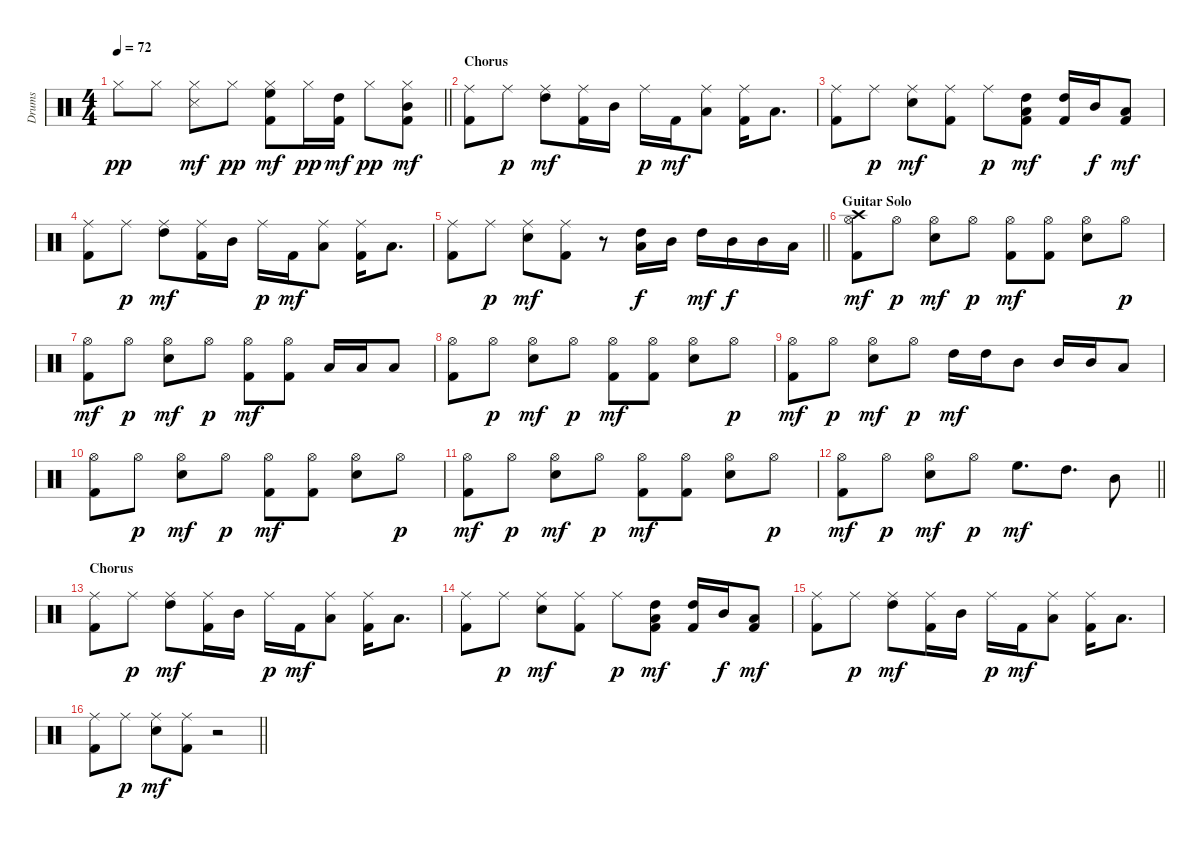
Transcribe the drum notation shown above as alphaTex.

\track ("Drums" "Drums") {instrument percussion}
\staff {score}
\articulation defaults
\ts (4 4)
\tempo 72
\clef neutral
\barLineRight lightlight
\ks c "Hi-Hat (closed)".8{dy pp} "Hi-Hat (closed)".8
("Hi-Hat (closed)" "Snare (side stick) 3").8{dy mf} "Hi-Hat (closed)".8{dy pp} ("Hi-Hat (closed)" "High Floor Tom (hit)" "Kick (hit) 2").8{dy mf} "Hi-Hat (closed)".16{dy pp} ("High Tom (hit)" "Kick (hit) 2").16{dy mf} "Hi-Hat (closed)".8{dy pp} ("Hi-Hat (closed)" "Mid Tom (hit)" "Kick (hit) 2").8{dy mf} |
\section ("" "Chorus")
("Ride (middle)" "Kick (hit) 2").8 "Ride (middle)".8{dy p} ("Ride (middle)" "High Tom (hit)").8{dy mf} ("Ride (middle)" "Kick (hit) 2").16 "Mid Tom (hit)".16 "Ride (middle)".16{dy p} "Kick (hit) 2".16{dy mf} ("Ride (middle)" "Low Tom (hit)").8 ("Ride (middle)" "Kick (hit) 2").16 "Low Tom (hit)".8{d} |
("Ride (middle)" "Kick (hit) 2").8 "Ride (middle)".8{dy p} ("Ride (middle)" "Snare (hit) 2").8{dy mf} ("Ride (middle)" "Kick (hit) 2").8 "Ride (middle)".8{dy p} ("High Tom (hit)" "Low Tom (hit)" "Kick (hit) 2").8{dy mf} ("High Tom (hit)" "Kick (hit) 2").16 "Mid Tom (hit)".16{dy f} ("Low Tom (hit)" "Kick (hit) 2").8{dy mf} |
("Ride (middle)" "Kick (hit) 2").8 "Ride (middle)".8{dy p} ("Ride (middle)" "High Tom (hit)").8{dy mf} ("Ride (middle)" "Kick (hit) 2").16 "Mid Tom (hit)".16 "Ride (middle)".16{dy p} "Kick (hit) 2".16{dy mf} ("Ride (middle)" "Low Tom (hit)").8 ("Ride (middle)" "Kick (hit) 2").16 "Low Tom (hit)".8{d} |
\barLineRight lightlight
("Ride (middle)" "Kick (hit) 2").8 "Ride (middle)".8{dy p} ("Ride (middle)" "Snare (hit) 2").8{dy mf} ("Ride (middle)" "Kick (hit) 2").8 r.8 ("High Tom (hit)" "Low Tom (hit)").16{dy f} "Mid Tom (hit)".16 "High Tom (hit)".16{dy mf} "Mid Tom (hit)".16{dy f} "Mid Tom (hit)".16 "Low Tom (hit)".16 |
\section ("" "Guitar Solo")
("Crash high (hit)" "Hi-Hat (open)" "Kick (hit) 2").8{dy mf} "Hi-Hat (open)".8{dy p} ("Hi-Hat (open)" "Snare (hit) 2").8{dy mf} "Hi-Hat (open)".8{dy p} ("Hi-Hat (open)" "Kick (hit) 2").8{dy mf} ("Hi-Hat (open)" "Kick (hit) 2").8 ("Hi-Hat (open)" "Snare (hit) 2").8 "Hi-Hat (open)".8{dy p} |
("Hi-Hat (open)" "Kick (hit) 2").8{dy mf} "Hi-Hat (open)".8{dy p} ("Hi-Hat (open)" "Snare (hit) 2").8{dy mf} "Hi-Hat (open)".8{dy p} ("Hi-Hat (open)" "Kick (hit) 2").8{dy mf} ("Hi-Hat (open)" "Kick (hit) 2").8 "Low Tom (hit)".16 "Low Tom (hit)".16 "Low Tom (hit)".8 |
("Hi-Hat (open)" "Kick (hit) 2").8 "Hi-Hat (open)".8{dy p} ("Hi-Hat (open)" "Snare (hit) 2").8{dy mf} "Hi-Hat (open)".8{dy p} ("Hi-Hat (open)" "Kick (hit) 2").8{dy mf} ("Hi-Hat (open)" "Kick (hit) 2").8 ("Hi-Hat (open)" "Snare (hit) 2").8 "Hi-Hat (open)".8{dy p} |
("Hi-Hat (open)" "Kick (hit) 2").8{dy mf} "Hi-Hat (open)".8{dy p} ("Hi-Hat (open)" "Snare (hit) 2").8{dy mf} "Hi-Hat (open)".8{dy p} "High Tom (hit)".16{dy mf} "High Tom (hit)".16 "Mid Tom (hit)".8 "Mid Tom (hit)".16 "Mid Tom (hit)".16 "Low Tom (hit)".8 |
("Hi-Hat (open)" "Kick (hit) 2").8 "Hi-Hat (open)".8{dy p} ("Hi-Hat (open)" "Snare (hit) 2").8{dy mf} "Hi-Hat (open)".8{dy p} ("Hi-Hat (open)" "Kick (hit) 2").8{dy mf} ("Hi-Hat (open)" "Kick (hit) 2").8 ("Hi-Hat (open)" "Snare (hit) 2").8 "Hi-Hat (open)".8{dy p} |
("Hi-Hat (open)" "Kick (hit) 2").8{dy mf} "Hi-Hat (open)".8{dy p} ("Hi-Hat (open)" "Snare (hit) 2").8{dy mf} "Hi-Hat (open)".8{dy p} ("Hi-Hat (open)" "Kick (hit) 2").8{dy mf} ("Hi-Hat (open)" "Kick (hit) 2").8 ("Hi-Hat (open)" "Snare (hit) 2").8 "Hi-Hat (open)".8{dy p} |
\barLineRight lightlight
("Hi-Hat (open)" "Kick (hit) 2").8{dy mf} "Hi-Hat (open)".8{dy p} ("Hi-Hat (open)" "Snare (hit) 2").8{dy mf} "Hi-Hat (open)".8{dy p} "High Floor Tom (hit)".8{d dy mf} "High Tom (hit)".8{d} "Mid Tom (hit)".8 |
\section ("" "Chorus")
("Ride (middle)" "Kick (hit) 2").8 "Ride (middle)".8{dy p} ("Ride (middle)" "High Tom (hit)").8{dy mf} ("Ride (middle)" "Kick (hit) 2").16 "Mid Tom (hit)".16 "Ride (middle)".16{dy p} "Kick (hit) 2".16{dy mf} ("Ride (middle)" "Low Tom (hit)").8 ("Ride (middle)" "Kick (hit) 2").16 "Low Tom (hit)".8{d} |
("Ride (middle)" "Kick (hit) 2").8 "Ride (middle)".8{dy p} ("Ride (middle)" "Snare (hit) 2").8{dy mf} ("Ride (middle)" "Kick (hit) 2").8 "Ride (middle)".8{dy p} ("High Tom (hit)" "Low Tom (hit)" "Kick (hit) 2").8{dy mf} ("High Tom (hit)" "Kick (hit) 2").16 "Mid Tom (hit)".16{dy f} ("Low Tom (hit)" "Kick (hit) 2").8{dy mf} |
("Ride (middle)" "Kick (hit) 2").8 "Ride (middle)".8{dy p} ("Ride (middle)" "High Tom (hit)").8{dy mf} ("Ride (middle)" "Kick (hit) 2").16 "Mid Tom (hit)".16 "Ride (middle)".16{dy p} "Kick (hit) 2".16{dy mf} ("Ride (middle)" "Low Tom (hit)").8 ("Ride (middle)" "Kick (hit) 2").16 "Low Tom (hit)".8{d} |
\barLineRight lightlight
("Ride (middle)" "Kick (hit) 2").8 "Ride (middle)".8{dy p} ("Ride (middle)" "Snare (hit) 2").8{dy mf} ("Ride (middle)" "Kick (hit) 2").8 r.2
